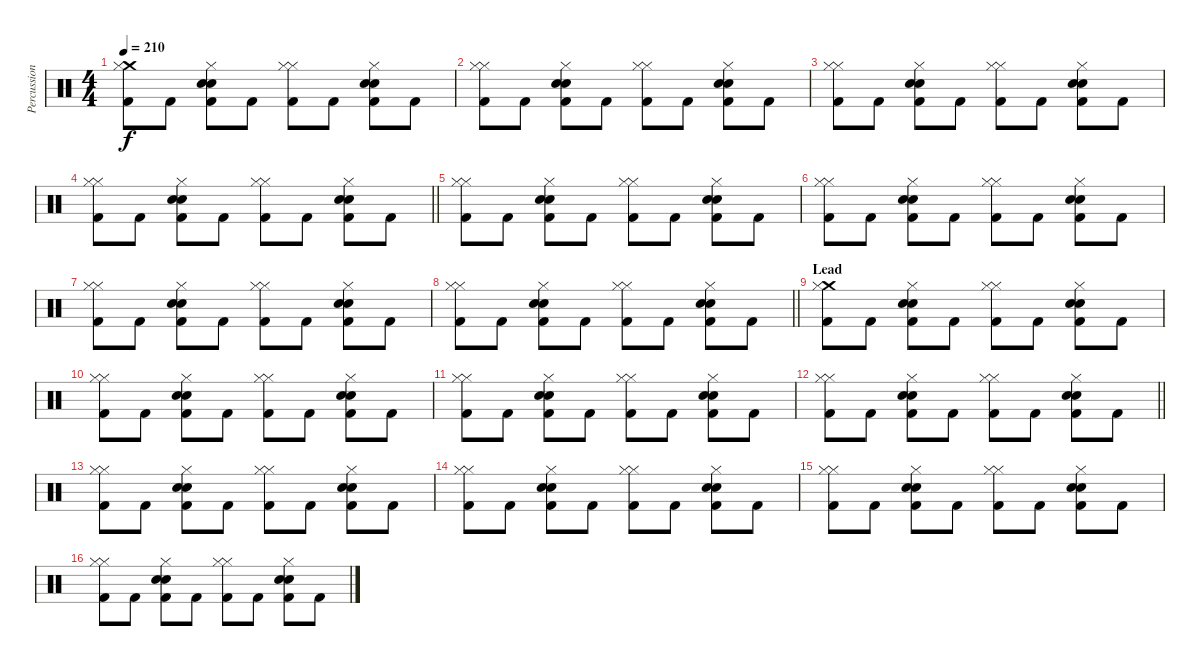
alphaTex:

\track ("Percussion" "Percussion") {instrument percussion}
\staff {score}
\articulation defaults
\ts (4 4)
\tempo 210
\clef neutral
\ks c
("Crash medium (hit)" "Hi-Hat (closed)" "Kick (hit) 2").8{dy f} "Kick (hit) 2".8 ("Hi-Hat (closed)" "Snare (hit) 2" "Electric Snare (hit)" "Kick (hit) 2").8 "Kick (hit) 2".8 ("Hi-Hat (closed)" "Hi-Hat (closed)" "Kick (hit) 2").8 "Kick (hit) 2".8 ("Hi-Hat (closed)" "Snare (hit) 2" "Electric Snare (hit)" "Kick (hit) 2").8 "Kick (hit) 2".8 |
("Hi-Hat (closed)" "Hi-Hat (closed)" "Kick (hit) 2").8 "Kick (hit) 2".8 ("Hi-Hat (closed)" "Snare (hit) 2" "Electric Snare (hit)" "Kick (hit) 2").8 "Kick (hit) 2".8 ("Hi-Hat (closed)" "Hi-Hat (closed)" "Kick (hit) 2").8 "Kick (hit) 2".8 ("Hi-Hat (closed)" "Snare (hit) 2" "Electric Snare (hit)" "Kick (hit) 2").8 "Kick (hit) 2".8 |
("Hi-Hat (closed)" "Hi-Hat (closed)" "Kick (hit) 2").8 "Kick (hit) 2".8 ("Hi-Hat (closed)" "Snare (hit) 2" "Electric Snare (hit)" "Kick (hit) 2").8 "Kick (hit) 2".8 ("Hi-Hat (closed)" "Hi-Hat (closed)" "Kick (hit) 2").8 "Kick (hit) 2".8 ("Hi-Hat (closed)" "Snare (hit) 2" "Electric Snare (hit)" "Kick (hit) 2").8 "Kick (hit) 2".8 |
\barLineRight lightlight
("Hi-Hat (closed)" "Hi-Hat (closed)" "Kick (hit) 2").8 "Kick (hit) 2".8 ("Hi-Hat (closed)" "Snare (hit) 2" "Electric Snare (hit)" "Kick (hit) 2").8 "Kick (hit) 2".8 ("Hi-Hat (closed)" "Hi-Hat (closed)" "Kick (hit) 2").8 "Kick (hit) 2".8 ("Hi-Hat (closed)" "Snare (hit) 2" "Electric Snare (hit)" "Kick (hit) 2").8 "Kick (hit) 2".8 |
("Hi-Hat (closed)" "Hi-Hat (closed)" "Kick (hit) 2").8 "Kick (hit) 2".8 ("Hi-Hat (closed)" "Snare (hit) 2" "Electric Snare (hit)" "Kick (hit) 2").8 "Kick (hit) 2".8 ("Hi-Hat (closed)" "Hi-Hat (closed)" "Kick (hit) 2").8 "Kick (hit) 2".8 ("Hi-Hat (closed)" "Snare (hit) 2" "Electric Snare (hit)" "Kick (hit) 2").8 "Kick (hit) 2".8 |
("Hi-Hat (closed)" "Hi-Hat (closed)" "Kick (hit) 2").8 "Kick (hit) 2".8 ("Hi-Hat (closed)" "Snare (hit) 2" "Electric Snare (hit)" "Kick (hit) 2").8 "Kick (hit) 2".8 ("Hi-Hat (closed)" "Hi-Hat (closed)" "Kick (hit) 2").8 "Kick (hit) 2".8 ("Hi-Hat (closed)" "Snare (hit) 2" "Electric Snare (hit)" "Kick (hit) 2").8 "Kick (hit) 2".8 |
("Hi-Hat (closed)" "Hi-Hat (closed)" "Kick (hit) 2").8 "Kick (hit) 2".8 ("Hi-Hat (closed)" "Snare (hit) 2" "Electric Snare (hit)" "Kick (hit) 2").8 "Kick (hit) 2".8 ("Hi-Hat (closed)" "Hi-Hat (closed)" "Kick (hit) 2").8 "Kick (hit) 2".8 ("Hi-Hat (closed)" "Snare (hit) 2" "Electric Snare (hit)" "Kick (hit) 2").8 "Kick (hit) 2".8 |
\barLineRight lightlight
("Hi-Hat (closed)" "Hi-Hat (closed)" "Kick (hit) 2").8 "Kick (hit) 2".8 ("Hi-Hat (closed)" "Snare (hit) 2" "Electric Snare (hit)" "Kick (hit) 2").8 "Kick (hit) 2".8 ("Hi-Hat (closed)" "Hi-Hat (closed)" "Kick (hit) 2").8 "Kick (hit) 2".8 ("Hi-Hat (closed)" "Snare (hit) 2" "Electric Snare (hit)" "Kick (hit) 2").8 "Kick (hit) 2".8 |
\section ("" "Lead")
("Crash medium (hit)" "Hi-Hat (closed)" "Kick (hit) 2").8 "Kick (hit) 2".8 ("Hi-Hat (closed)" "Snare (hit) 2" "Electric Snare (hit)" "Kick (hit) 2").8 "Kick (hit) 2".8 ("Hi-Hat (closed)" "Hi-Hat (closed)" "Kick (hit) 2").8 "Kick (hit) 2".8 ("Hi-Hat (closed)" "Snare (hit) 2" "Electric Snare (hit)" "Kick (hit) 2").8 "Kick (hit) 2".8 |
("Hi-Hat (closed)" "Hi-Hat (closed)" "Kick (hit) 2").8 "Kick (hit) 2".8 ("Hi-Hat (closed)" "Snare (hit) 2" "Electric Snare (hit)" "Kick (hit) 2").8 "Kick (hit) 2".8 ("Hi-Hat (closed)" "Hi-Hat (closed)" "Kick (hit) 2").8 "Kick (hit) 2".8 ("Hi-Hat (closed)" "Snare (hit) 2" "Electric Snare (hit)" "Kick (hit) 2").8 "Kick (hit) 2".8 |
("Hi-Hat (closed)" "Hi-Hat (closed)" "Kick (hit) 2").8 "Kick (hit) 2".8 ("Hi-Hat (closed)" "Snare (hit) 2" "Electric Snare (hit)" "Kick (hit) 2").8 "Kick (hit) 2".8 ("Hi-Hat (closed)" "Hi-Hat (closed)" "Kick (hit) 2").8 "Kick (hit) 2".8 ("Hi-Hat (closed)" "Snare (hit) 2" "Electric Snare (hit)" "Kick (hit) 2").8 "Kick (hit) 2".8 |
\barLineRight lightlight
("Hi-Hat (closed)" "Hi-Hat (closed)" "Kick (hit) 2").8 "Kick (hit) 2".8 ("Hi-Hat (closed)" "Snare (hit) 2" "Electric Snare (hit)" "Kick (hit) 2").8 "Kick (hit) 2".8 ("Hi-Hat (closed)" "Hi-Hat (closed)" "Kick (hit) 2").8 "Kick (hit) 2".8 ("Hi-Hat (closed)" "Snare (hit) 2" "Electric Snare (hit)" "Kick (hit) 2").8 "Kick (hit) 2".8 |
("Hi-Hat (closed)" "Hi-Hat (closed)" "Kick (hit) 2").8 "Kick (hit) 2".8 ("Hi-Hat (closed)" "Snare (hit) 2" "Electric Snare (hit)" "Kick (hit) 2").8 "Kick (hit) 2".8 ("Hi-Hat (closed)" "Hi-Hat (closed)" "Kick (hit) 2").8 "Kick (hit) 2".8 ("Hi-Hat (closed)" "Snare (hit) 2" "Electric Snare (hit)" "Kick (hit) 2").8 "Kick (hit) 2".8 |
("Hi-Hat (closed)" "Hi-Hat (closed)" "Kick (hit) 2").8 "Kick (hit) 2".8 ("Hi-Hat (closed)" "Snare (hit) 2" "Electric Snare (hit)" "Kick (hit) 2").8 "Kick (hit) 2".8 ("Hi-Hat (closed)" "Hi-Hat (closed)" "Kick (hit) 2").8 "Kick (hit) 2".8 ("Hi-Hat (closed)" "Snare (hit) 2" "Electric Snare (hit)" "Kick (hit) 2").8 "Kick (hit) 2".8 |
("Hi-Hat (closed)" "Hi-Hat (closed)" "Kick (hit) 2").8 "Kick (hit) 2".8 ("Hi-Hat (closed)" "Snare (hit) 2" "Electric Snare (hit)" "Kick (hit) 2").8 "Kick (hit) 2".8 ("Hi-Hat (closed)" "Hi-Hat (closed)" "Kick (hit) 2").8 "Kick (hit) 2".8 ("Hi-Hat (closed)" "Snare (hit) 2" "Electric Snare (hit)" "Kick (hit) 2").8 "Kick (hit) 2".8 |
("Hi-Hat (closed)" "Hi-Hat (closed)" "Kick (hit) 2").8 "Kick (hit) 2".8 ("Hi-Hat (closed)" "Snare (hit) 2" "Electric Snare (hit)" "Kick (hit) 2").8 "Kick (hit) 2".8 ("Hi-Hat (closed)" "Hi-Hat (closed)" "Kick (hit) 2").8 "Kick (hit) 2".8 ("Hi-Hat (closed)" "Snare (hit) 2" "Electric Snare (hit)" "Kick (hit) 2").8 "Kick (hit) 2".8
